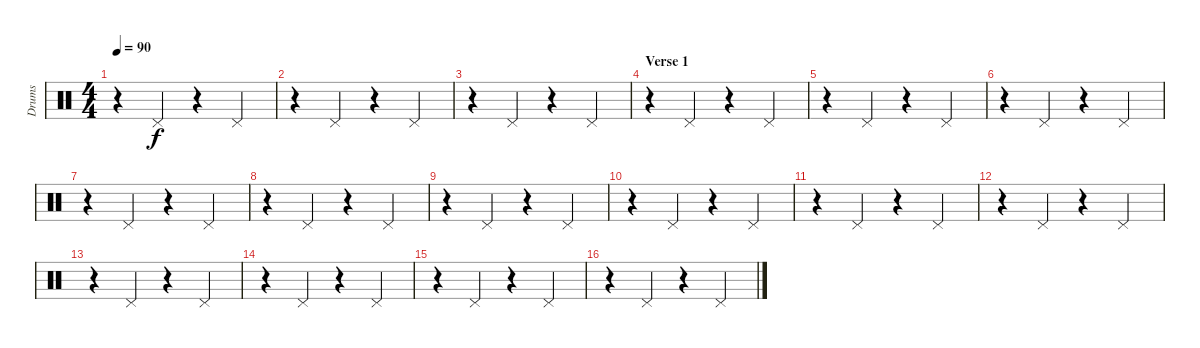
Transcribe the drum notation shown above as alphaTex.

\track ("Drums" "Drums") {instrument percussion}
\staff {score}
\articulation defaults
\ts (4 4)
\tempo 90
\clef neutral
\ks c
r.4{dy f} "Pedal Hi-Hat (hit)".4 r.4 "Pedal Hi-Hat (hit)".4 |
r.4 "Pedal Hi-Hat (hit)".4 r.4 "Pedal Hi-Hat (hit)".4 |
r.4 "Pedal Hi-Hat (hit)".4 r.4 "Pedal Hi-Hat (hit)".4 |
\section ("" "Verse 1 ")
r.4 "Pedal Hi-Hat (hit)".4 r.4 "Pedal Hi-Hat (hit)".4 |
r.4 "Pedal Hi-Hat (hit)".4 r.4 "Pedal Hi-Hat (hit)".4 |
r.4 "Pedal Hi-Hat (hit)".4 r.4 "Pedal Hi-Hat (hit)".4 |
r.4 "Pedal Hi-Hat (hit)".4 r.4 "Pedal Hi-Hat (hit)".4 |
r.4 "Pedal Hi-Hat (hit)".4 r.4 "Pedal Hi-Hat (hit)".4 |
r.4 "Pedal Hi-Hat (hit)".4 r.4 "Pedal Hi-Hat (hit)".4 |
r.4 "Pedal Hi-Hat (hit)".4 r.4 "Pedal Hi-Hat (hit)".4 |
r.4 "Pedal Hi-Hat (hit)".4 r.4 "Pedal Hi-Hat (hit)".4 |
r.4 "Pedal Hi-Hat (hit)".4 r.4 "Pedal Hi-Hat (hit)".4 |
r.4 "Pedal Hi-Hat (hit)".4 r.4 "Pedal Hi-Hat (hit)".4 |
r.4 "Pedal Hi-Hat (hit)".4 r.4 "Pedal Hi-Hat (hit)".4 |
r.4 "Pedal Hi-Hat (hit)".4 r.4 "Pedal Hi-Hat (hit)".4 |
r.4 "Pedal Hi-Hat (hit)".4 r.4 "Pedal Hi-Hat (hit)".4
